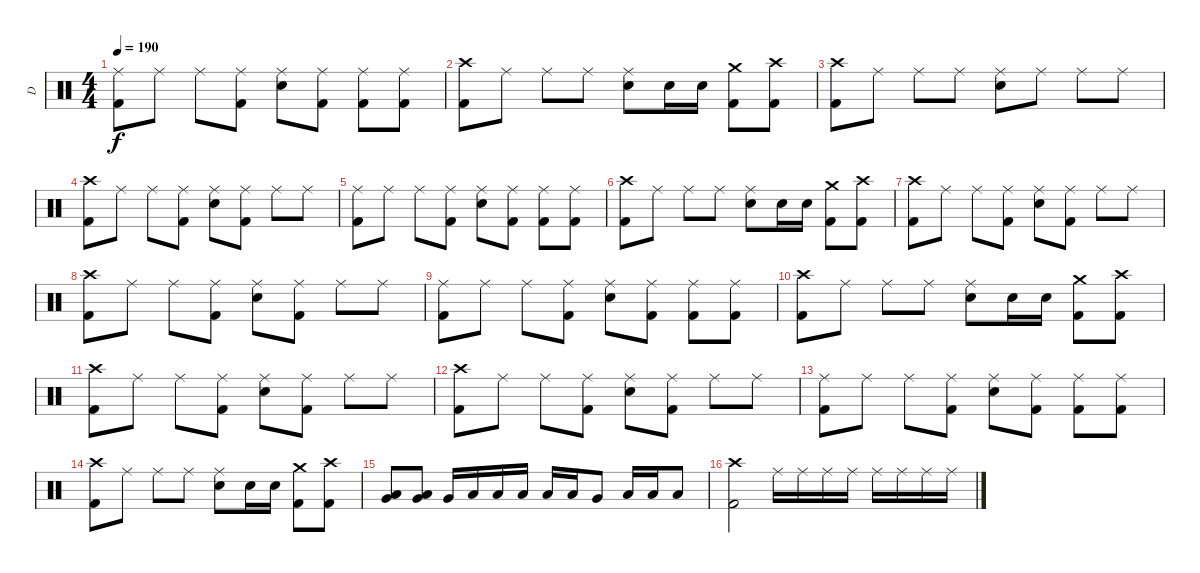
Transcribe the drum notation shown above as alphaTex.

\track ("D" "D") {instrument percussion}
\staff {score}
\articulation defaults
\ts (4 4)
\tempo 190
\clef neutral
\ks c
("Ride (middle)" "Kick (hit) 2").8{dy f} "Ride (middle)".8 "Ride (middle)".8 ("Ride (middle)" "Kick (hit) 2").8 ("Ride (middle)" "Electric Snare (hit)").8 ("Ride (middle)" "Kick (hit) 2").8 ("Ride (middle)" "Kick (hit) 2").8 ("Ride (middle)" "Kick (hit) 2").8 |
("Crash high (hit)" "Kick (hit) 2").8 "Ride (middle)".8 "Ride (middle)".8 "Ride (middle)".8 ("Ride (middle)" "Electric Snare (hit)").8 "Electric Snare (hit)".16 "Electric Snare (hit)".16 ("Crash medium (hit)" "Kick (hit) 2").8 ("Crash high (hit)" "Kick (hit) 2").8 |
("Crash high (hit)" "Kick (hit) 2").8 "Ride (middle)".8 "Ride (middle)".8 "Ride (middle)".8 ("Ride (middle)" "Electric Snare (hit)").8 "Ride (middle)".8 "Ride (middle)".8 "Ride (middle)".8 |
("Crash high (hit)" "Kick (hit) 2").8 "Ride (middle)".8 "Ride (middle)".8 ("Ride (middle)" "Kick (hit) 2").8 ("Ride (middle)" "Electric Snare (hit)").8 ("Ride (middle)" "Kick (hit) 2").8 "Ride (middle)".8 "Ride (middle)".8 |
("Ride (middle)" "Kick (hit) 2").8 "Ride (middle)".8 "Ride (middle)".8 ("Ride (middle)" "Kick (hit) 2").8 ("Ride (middle)" "Electric Snare (hit)").8 ("Ride (middle)" "Kick (hit) 2").8 ("Ride (middle)" "Kick (hit) 2").8 ("Ride (middle)" "Kick (hit) 2").8 |
("Crash high (hit)" "Kick (hit) 2").8 "Ride (middle)".8 "Ride (middle)".8 "Ride (middle)".8 ("Ride (middle)" "Electric Snare (hit)").8 "Electric Snare (hit)".16 "Electric Snare (hit)".16 ("Crash medium (hit)" "Kick (hit) 2").8 ("Crash high (hit)" "Kick (hit) 2").8 |
("Crash high (hit)" "Kick (hit) 2").8 "Ride (middle)".8 "Ride (middle)".8 ("Ride (middle)" "Kick (hit) 2").8 ("Ride (middle)" "Electric Snare (hit)").8 ("Ride (middle)" "Kick (hit) 2").8 "Ride (middle)".8 "Ride (middle)".8 |
("Crash high (hit)" "Kick (hit) 2").8 "Ride (middle)".8 "Ride (middle)".8 ("Ride (middle)" "Kick (hit) 2").8 ("Ride (middle)" "Electric Snare (hit)").8 ("Ride (middle)" "Kick (hit) 2").8 "Ride (middle)".8 "Ride (middle)".8 |
("Ride (middle)" "Kick (hit) 2").8 "Ride (middle)".8 "Ride (middle)".8 ("Ride (middle)" "Kick (hit) 2").8 ("Ride (middle)" "Electric Snare (hit)").8 ("Ride (middle)" "Kick (hit) 2").8 ("Ride (middle)" "Kick (hit) 2").8 ("Ride (middle)" "Kick (hit) 2").8 |
("Crash high (hit)" "Kick (hit) 2").8 "Ride (middle)".8 "Ride (middle)".8 "Ride (middle)".8 ("Ride (middle)" "Electric Snare (hit)").8 "Electric Snare (hit)".16 "Electric Snare (hit)".16 ("Crash medium (hit)" "Kick (hit) 2").8 ("Crash high (hit)" "Kick (hit) 2").8 |
("Crash high (hit)" "Kick (hit) 2").8 "Ride (middle)".8 "Ride (middle)".8 ("Ride (middle)" "Kick (hit) 2").8 ("Ride (middle)" "Electric Snare (hit)").8 ("Ride (middle)" "Kick (hit) 2").8 "Ride (middle)".8 "Ride (middle)".8 |
("Crash high (hit)" "Kick (hit) 2").8 "Ride (middle)".8 "Ride (middle)".8 ("Ride (middle)" "Kick (hit) 2").8 ("Ride (middle)" "Electric Snare (hit)").8 ("Ride (middle)" "Kick (hit) 2").8 "Ride (middle)".8 "Ride (middle)".8 |
("Ride (middle)" "Kick (hit) 2").8 "Ride (middle)".8 "Ride (middle)".8 ("Ride (middle)" "Kick (hit) 2").8 ("Ride (middle)" "Electric Snare (hit)").8 ("Ride (middle)" "Kick (hit) 2").8 ("Ride (middle)" "Kick (hit) 2").8 ("Ride (middle)" "Kick (hit) 2").8 |
("Crash high (hit)" "Kick (hit) 2").8 "Ride (middle)".8 "Ride (middle)".8 "Ride (middle)".8 ("Ride (middle)" "Electric Snare (hit)").8 "Electric Snare (hit)".16 "Electric Snare (hit)".16 ("Crash medium (hit)" "Kick (hit) 2").8 ("Crash high (hit)" "Kick (hit) 2").8 |
("Low Floor Tom (hit)" "Very Low Tom (hit)").8 ("Low Floor Tom (hit)" "Very Low Tom (hit)").8 "Very Low Tom (hit)".16 "Low Tom (hit)".16 "Low Tom (hit)".16 "Low Tom (hit)".16 "Low Floor Tom (hit)".16 "Low Floor Tom (hit)".16 "Very Low Tom (hit)".8 "Low Tom (hit)".16 "Low Tom (hit)".16 "Low Tom (hit)".8 |
("Crash high (hit)" "Kick (hit) 2").2 "Ride (middle)".16 "Ride (middle)".16 "Ride (middle)".16 "Ride (middle)".16 "Ride (middle)".16 "Ride (middle)".16 "Ride (middle)".16 "Ride (middle)".16
